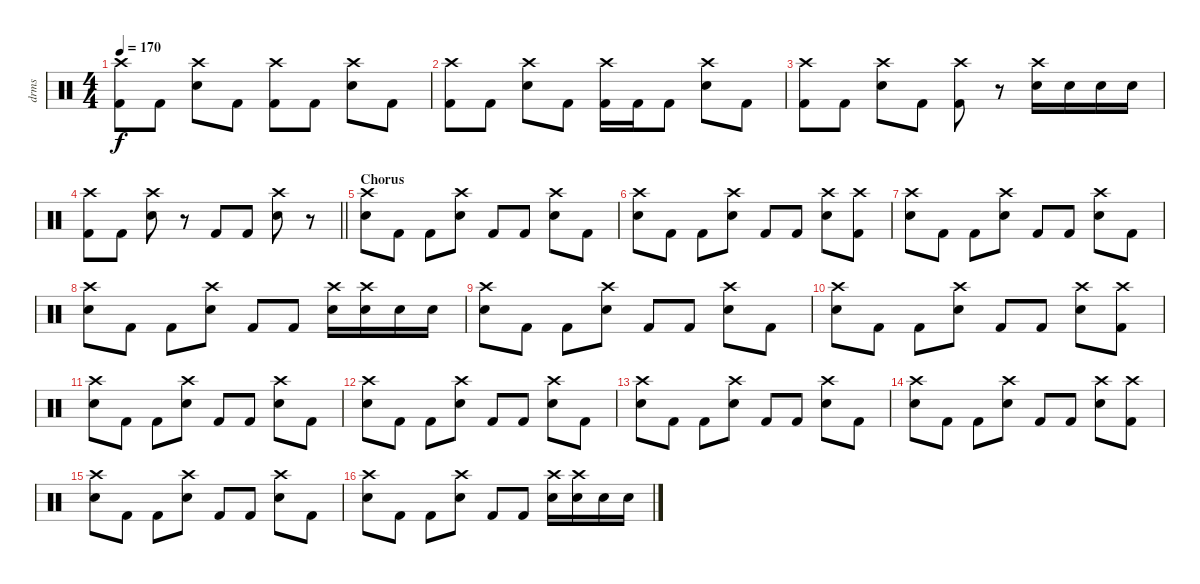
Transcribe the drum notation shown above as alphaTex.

\track ("drms" "drms") {instrument percussion}
\staff {score}
\articulation defaults
\ts (4 4)
\tempo 170
\clef neutral
\ks c
("Crash high (hit)" "Kick (hit) 2").8{dy f} "Kick (hit) 2".8 ("Crash high (hit)" "Snare (hit) 2").8 "Kick (hit) 2".8 ("Crash high (hit)" "Kick (hit) 2").8 "Kick (hit) 2".8 ("Crash high (hit)" "Snare (hit) 2").8 "Kick (hit) 2".8 |
("Crash high (hit)" "Kick (hit) 2").8 "Kick (hit) 2".8 ("Crash high (hit)" "Snare (hit) 2").8 "Kick (hit) 2".8 ("Crash high (hit)" "Kick (hit) 2").16 "Kick (hit) 2".16 "Kick (hit) 2".8 ("Crash high (hit)" "Snare (hit) 2").8 "Kick (hit) 2".8 |
("Crash high (hit)" "Kick (hit) 2").8 "Kick (hit) 2".8 ("Crash high (hit)" "Snare (hit) 2").8 "Kick (hit) 2".8 ("Crash high (hit)" "Kick (hit) 2").8 r.8 ("Crash high (hit)" "Electric Snare (hit)").16 "Electric Snare (hit)".16 "Electric Snare (hit)".16 "Electric Snare (hit)".16 |
\barLineRight lightlight
("Crash high (hit)" "Kick (hit) 2").8 "Kick (hit) 2".8 ("Crash high (hit)" "Snare (hit) 2").8 r.8 "Kick (hit) 2".8 "Kick (hit) 2".8 ("Crash high (hit)" "Snare (hit) 2").8 r.8 |
\section ("" "Chorus")
("Crash high (hit)" "Snare (hit) 2").8 "Kick (hit) 2".8 "Kick (hit) 2".8 ("Crash high (hit)" "Snare (hit) 2").8 "Kick (hit) 2".8 "Kick (hit) 2".8 ("Crash high (hit)" "Snare (hit) 2").8 "Kick (hit) 2".8 |
("Crash high (hit)" "Snare (hit) 2").8 "Kick (hit) 2".8 "Kick (hit) 2".8 ("Crash high (hit)" "Snare (hit) 2").8 "Kick (hit) 2".8 "Kick (hit) 2".8 ("Crash high (hit)" "Snare (hit) 2").8 ("Crash high (hit)" "Kick (hit) 2").8 |
("Crash high (hit)" "Snare (hit) 2").8 "Kick (hit) 2".8 "Kick (hit) 2".8 ("Crash high (hit)" "Snare (hit) 2").8 "Kick (hit) 2".8 "Kick (hit) 2".8 ("Crash high (hit)" "Snare (hit) 2").8 "Kick (hit) 2".8 |
("Crash high (hit)" "Snare (hit) 2").8 "Kick (hit) 2".8 "Kick (hit) 2".8 ("Crash high (hit)" "Snare (hit) 2").8 "Kick (hit) 2".8 "Kick (hit) 2".8 ("Crash high (hit)" "Electric Snare (hit)").16 ("Crash high (hit)" "Electric Snare (hit)").16 "Electric Snare (hit)".16 "Electric Snare (hit)".16 |
("Crash high (hit)" "Snare (hit) 2").8 "Kick (hit) 2".8 "Kick (hit) 2".8 ("Crash high (hit)" "Snare (hit) 2").8 "Kick (hit) 2".8 "Kick (hit) 2".8 ("Crash high (hit)" "Snare (hit) 2").8 "Kick (hit) 2".8 |
("Crash high (hit)" "Snare (hit) 2").8 "Kick (hit) 2".8 "Kick (hit) 2".8 ("Crash high (hit)" "Snare (hit) 2").8 "Kick (hit) 2".8 "Kick (hit) 2".8 ("Crash high (hit)" "Snare (hit) 2").8 ("Crash high (hit)" "Kick (hit) 2").8 |
("Crash high (hit)" "Snare (hit) 2").8 "Kick (hit) 2".8 "Kick (hit) 2".8 ("Crash high (hit)" "Snare (hit) 2").8 "Kick (hit) 2".8 "Kick (hit) 2".8 ("Crash high (hit)" "Snare (hit) 2").8 "Kick (hit) 2".8 |
("Crash high (hit)" "Electric Snare (hit)").8 "Kick (hit) 2".8 "Kick (hit) 2".8 ("Crash high (hit)" "Electric Snare (hit)").8 "Kick (hit) 2".8 "Kick (hit) 2".8 ("Crash high (hit)" "Electric Snare (hit)").8 "Kick (hit) 2".8 |
("Crash high (hit)" "Snare (hit) 2").8 "Kick (hit) 2".8 "Kick (hit) 2".8 ("Crash high (hit)" "Snare (hit) 2").8 "Kick (hit) 2".8 "Kick (hit) 2".8 ("Crash high (hit)" "Snare (hit) 2").8 "Kick (hit) 2".8 |
("Crash high (hit)" "Snare (hit) 2").8 "Kick (hit) 2".8 "Kick (hit) 2".8 ("Crash high (hit)" "Snare (hit) 2").8 "Kick (hit) 2".8 "Kick (hit) 2".8 ("Crash high (hit)" "Snare (hit) 2").8 ("Crash high (hit)" "Kick (hit) 2").8 |
("Crash high (hit)" "Snare (hit) 2").8 "Kick (hit) 2".8 "Kick (hit) 2".8 ("Crash high (hit)" "Snare (hit) 2").8 "Kick (hit) 2".8 "Kick (hit) 2".8 ("Crash high (hit)" "Snare (hit) 2").8 "Kick (hit) 2".8 |
("Crash high (hit)" "Snare (hit) 2").8 "Kick (hit) 2".8 "Kick (hit) 2".8 ("Crash high (hit)" "Snare (hit) 2").8 "Kick (hit) 2".8 "Kick (hit) 2".8 ("Crash high (hit)" "Electric Snare (hit)").16 ("Crash high (hit)" "Electric Snare (hit)").16 "Electric Snare (hit)".16 "Electric Snare (hit)".16
